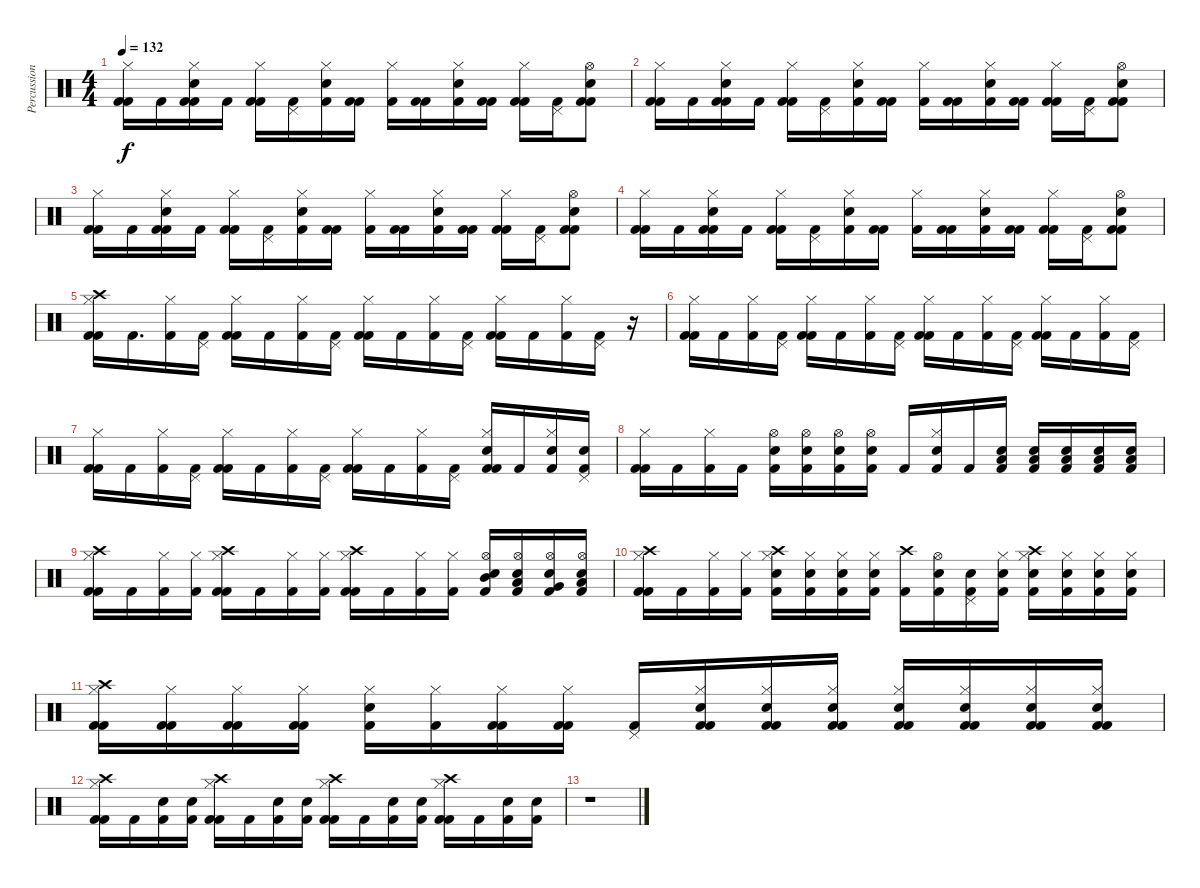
\track ("Percussion" "Percussion") {instrument percussion}
\staff {score}
\articulation defaults
\ts (4 4)
\tempo 132
\clef neutral
\ks c
("Kick (hit) 2" "Hi-Hat (closed)" "Kick (hit) 2").16{dy f} "Kick (hit) 2".16 ("Kick (hit) 2" "Snare (hit) 2" "Hi-Hat (closed)" "Kick (hit) 2").16 "Kick (hit) 2".16 ("Kick (hit) 2" "Hi-Hat (closed)" "Kick (hit) 2").16 ("Pedal Hi-Hat (hit)" "Kick (hit) 2").16 ("Snare (hit) 2" "Hi-Hat (closed)" "Kick (hit) 2").16 ("Kick (hit) 2" "Kick (hit) 2").16 ("Hi-Hat (closed)" "Kick (hit) 2").16 ("Kick (hit) 2" "Kick (hit) 2").16 ("Snare (hit) 2" "Hi-Hat (closed)" "Kick (hit) 2").16 ("Kick (hit) 2" "Kick (hit) 2").16 ("Kick (hit) 2" "Hi-Hat (closed)" "Kick (hit) 2").16 ("Pedal Hi-Hat (hit)" "Kick (hit) 2").16 ("Kick (hit) 2" "Snare (hit) 2" "Hi-Hat (open)" "Kick (hit) 2").8 |
("Kick (hit) 2" "Hi-Hat (closed)" "Kick (hit) 2").16 "Kick (hit) 2".16 ("Kick (hit) 2" "Snare (hit) 2" "Hi-Hat (closed)" "Kick (hit) 2").16 "Kick (hit) 2".16 ("Kick (hit) 2" "Hi-Hat (closed)" "Kick (hit) 2").16 ("Pedal Hi-Hat (hit)" "Kick (hit) 2").16 ("Snare (hit) 2" "Hi-Hat (closed)" "Kick (hit) 2").16 ("Kick (hit) 2" "Kick (hit) 2").16 ("Hi-Hat (closed)" "Kick (hit) 2").16 ("Kick (hit) 2" "Kick (hit) 2").16 ("Snare (hit) 2" "Hi-Hat (closed)" "Kick (hit) 2").16 ("Kick (hit) 2" "Kick (hit) 2").16 ("Kick (hit) 2" "Hi-Hat (closed)" "Kick (hit) 2").16 ("Pedal Hi-Hat (hit)" "Kick (hit) 2").16 ("Kick (hit) 2" "Snare (hit) 2" "Hi-Hat (open)" "Kick (hit) 2").8 |
("Kick (hit) 2" "Hi-Hat (closed)" "Kick (hit) 2").16 "Kick (hit) 2".16 ("Kick (hit) 2" "Snare (hit) 2" "Hi-Hat (closed)" "Kick (hit) 2").16 "Kick (hit) 2".16 ("Kick (hit) 2" "Hi-Hat (closed)" "Kick (hit) 2").16 ("Pedal Hi-Hat (hit)" "Kick (hit) 2").16 ("Snare (hit) 2" "Hi-Hat (closed)" "Kick (hit) 2").16 ("Kick (hit) 2" "Kick (hit) 2").16 ("Hi-Hat (closed)" "Kick (hit) 2").16 ("Kick (hit) 2" "Kick (hit) 2").16 ("Snare (hit) 2" "Hi-Hat (closed)" "Kick (hit) 2").16 ("Kick (hit) 2" "Kick (hit) 2").16 ("Kick (hit) 2" "Hi-Hat (closed)" "Kick (hit) 2").16 ("Pedal Hi-Hat (hit)" "Kick (hit) 2").16 ("Kick (hit) 2" "Snare (hit) 2" "Hi-Hat (open)" "Kick (hit) 2").8 |
("Kick (hit) 2" "Hi-Hat (closed)" "Kick (hit) 2").16 "Kick (hit) 2".16 ("Kick (hit) 2" "Snare (hit) 2" "Hi-Hat (closed)" "Kick (hit) 2").16 "Kick (hit) 2".16 ("Kick (hit) 2" "Hi-Hat (closed)" "Kick (hit) 2").16 ("Pedal Hi-Hat (hit)" "Kick (hit) 2").16 ("Snare (hit) 2" "Hi-Hat (closed)" "Kick (hit) 2").16 ("Kick (hit) 2" "Kick (hit) 2").16 ("Hi-Hat (closed)" "Kick (hit) 2").16 ("Kick (hit) 2" "Kick (hit) 2").16 ("Snare (hit) 2" "Hi-Hat (closed)" "Kick (hit) 2").16 ("Kick (hit) 2" "Kick (hit) 2").16 ("Kick (hit) 2" "Hi-Hat (closed)" "Kick (hit) 2").16 ("Pedal Hi-Hat (hit)" "Kick (hit) 2").16 ("Kick (hit) 2" "Snare (hit) 2" "Hi-Hat (open)" "Kick (hit) 2").8 |
("Kick (hit) 2" "Hi-Hat (closed)" "Crash high (hit)" "Kick (hit) 2").16 "Kick (hit) 2".16{d} ("Hi-Hat (closed)" "Kick (hit) 2").16 ("Pedal Hi-Hat (hit)" "Kick (hit) 2").16 ("Kick (hit) 2" "Hi-Hat (closed)" "Kick (hit) 2").16 "Kick (hit) 2".16 ("Hi-Hat (closed)" "Kick (hit) 2").16 ("Pedal Hi-Hat (hit)" "Kick (hit) 2").16 ("Kick (hit) 2" "Hi-Hat (closed)" "Kick (hit) 2").16 "Kick (hit) 2".16 ("Hi-Hat (closed)" "Kick (hit) 2").16 ("Pedal Hi-Hat (hit)" "Kick (hit) 2").16 ("Kick (hit) 2" "Hi-Hat (closed)" "Kick (hit) 2").16 "Kick (hit) 2".16 ("Hi-Hat (closed)" "Kick (hit) 2").16 ("Pedal Hi-Hat (hit)" "Kick (hit) 2").16 r.16 |
("Kick (hit) 2" "Hi-Hat (closed)" "Kick (hit) 2").16 "Kick (hit) 2".16 ("Hi-Hat (closed)" "Kick (hit) 2").16 ("Pedal Hi-Hat (hit)" "Kick (hit) 2").16 ("Kick (hit) 2" "Hi-Hat (closed)" "Kick (hit) 2").16 "Kick (hit) 2".16 ("Hi-Hat (closed)" "Kick (hit) 2").16 ("Pedal Hi-Hat (hit)" "Kick (hit) 2").16 ("Kick (hit) 2" "Hi-Hat (closed)" "Kick (hit) 2").16 "Kick (hit) 2".16 ("Hi-Hat (closed)" "Kick (hit) 2").16 ("Pedal Hi-Hat (hit)" "Kick (hit) 2").16 ("Kick (hit) 2" "Hi-Hat (closed)" "Kick (hit) 2").16 "Kick (hit) 2".16 ("Hi-Hat (closed)" "Kick (hit) 2").16 ("Pedal Hi-Hat (hit)" "Kick (hit) 2").16 |
("Kick (hit) 2" "Hi-Hat (closed)" "Kick (hit) 2").16 "Kick (hit) 2".16 ("Hi-Hat (closed)" "Kick (hit) 2").16 ("Pedal Hi-Hat (hit)" "Kick (hit) 2").16 ("Kick (hit) 2" "Hi-Hat (closed)" "Kick (hit) 2").16 "Kick (hit) 2".16 ("Hi-Hat (closed)" "Kick (hit) 2").16 ("Pedal Hi-Hat (hit)" "Kick (hit) 2").16 ("Kick (hit) 2" "Hi-Hat (closed)" "Kick (hit) 2").16 "Kick (hit) 2".16 ("Hi-Hat (closed)" "Kick (hit) 2").16 ("Pedal Hi-Hat (hit)" "Kick (hit) 2").16 ("Kick (hit) 2" "Snare (hit) 2" "Hi-Hat (closed)" "Kick (hit) 2").16 "Kick (hit) 2".16 ("Snare (hit) 2" "Hi-Hat (closed)" "Kick (hit) 2").16 ("Snare (hit) 2" "Pedal Hi-Hat (hit)" "Kick (hit) 2").16 |
("Kick (hit) 2" "Hi-Hat (closed)" "Kick (hit) 2").16 "Kick (hit) 2".16 ("Hi-Hat (closed)" "Kick (hit) 2").16 "Kick (hit) 2".16 ("Snare (hit) 2" "Hi-Hat (open)" "Kick (hit) 2").16 ("Snare (hit) 2" "Hi-Hat (open)" "Kick (hit) 2").16 ("Snare (hit) 2" "Hi-Hat (open)" "Kick (hit) 2").16 ("Snare (hit) 2" "Hi-Hat (open)" "Kick (hit) 2").16 "Kick (hit) 2".16 ("Snare (hit) 2" "Hi-Hat (closed)" "Kick (hit) 2").16 "Kick (hit) 2".16 ("Snare (hit) 2" "Low Floor Tom (hit)" "Kick (hit) 2").16 ("Snare (hit) 2" "Low Floor Tom (hit)" "Kick (hit) 2").16 ("Snare (hit) 2" "Low Floor Tom (hit)" "Kick (hit) 2").16 ("Snare (hit) 2" "Low Floor Tom (hit)" "Kick (hit) 2").16 ("Snare (hit) 2" "Low Floor Tom (hit)" "Kick (hit) 2").16 |
("Kick (hit) 2" "Hi-Hat (closed)" "Crash high (hit)" "Kick (hit) 2").16 "Kick (hit) 2".16 ("Hi-Hat (closed)" "Kick (hit) 2").16 ("Hi-Hat (closed)" "Kick (hit) 2").16 ("Kick (hit) 2" "Hi-Hat (closed)" "Crash high (hit)" "Kick (hit) 2").16 "Kick (hit) 2".16 ("Hi-Hat (closed)" "Kick (hit) 2").16 ("Hi-Hat (closed)" "Kick (hit) 2").16 ("Kick (hit) 2" "Hi-Hat (closed)" "Crash high (hit)" "Kick (hit) 2").16 "Kick (hit) 2".16 ("Hi-Hat (closed)" "Kick (hit) 2").16 ("Hi-Hat (closed)" "Kick (hit) 2").16 ("Snare (hit) 2" "Hi-Hat (open)" "Mid Tom (hit)" "Kick (hit) 2").16 ("Snare (hit) 2" "Low Tom (hit)" "Hi-Hat (open)" "Kick (hit) 2").16 ("Snare (hit) 2" "Very Low Tom (hit)" "Hi-Hat (open)" "Kick (hit) 2").16 ("Snare (hit) 2" "Low Floor Tom (hit)" "Hi-Hat (open)" "Kick (hit) 2").16 |
("Kick (hit) 2" "Hi-Hat (closed)" "Crash high (hit)" "Kick (hit) 2").16 "Kick (hit) 2".16 ("Hi-Hat (closed)" "Kick (hit) 2").16 ("Hi-Hat (closed)" "Kick (hit) 2").16 ("Snare (hit) 2" "Hi-Hat (closed)" "Crash high (hit)" "Kick (hit) 2").16 ("Snare (hit) 2" "Hi-Hat (closed)" "Kick (hit) 2").16 ("Snare (hit) 2" "Hi-Hat (closed)" "Kick (hit) 2").16 ("Snare (hit) 2" "Hi-Hat (closed)" "Kick (hit) 2").16 ("Crash high (hit)" "Kick (hit) 2").16 ("Snare (hit) 2" "Hi-Hat (open)" "Kick (hit) 2").16 ("Snare (hit) 2" "Pedal Hi-Hat (hit)" "Kick (hit) 2").16 ("Snare (hit) 2" "Hi-Hat (closed)" "Kick (hit) 2").16 ("Snare (hit) 2" "Hi-Hat (closed)" "Crash high (hit)" "Kick (hit) 2").16 ("Snare (hit) 2" "Hi-Hat (closed)" "Kick (hit) 2").16 ("Snare (hit) 2" "Hi-Hat (closed)" "Kick (hit) 2").16 ("Snare (hit) 2" "Hi-Hat (closed)" "Kick (hit) 2").16 |
("Kick (hit) 2" "Hi-Hat (closed)" "Crash high (hit)" "Kick (hit) 2").16 ("Kick (hit) 2" "Hi-Hat (closed)" "Kick (hit) 2").16 ("Kick (hit) 2" "Hi-Hat (closed)" "Kick (hit) 2").16 ("Kick (hit) 2" "Hi-Hat (closed)" "Kick (hit) 2").16 ("Snare (hit) 2" "Hi-Hat (closed)" "Kick (hit) 2").16 ("Hi-Hat (closed)" "Kick (hit) 2").16 ("Kick (hit) 2" "Hi-Hat (closed)" "Kick (hit) 2").16 ("Kick (hit) 2" "Hi-Hat (closed)" "Kick (hit) 2").16 ("Pedal Hi-Hat (hit)" "Kick (hit) 2").16 ("Kick (hit) 2" "Snare (hit) 2" "Hi-Hat (closed)" "Kick (hit) 2").16 ("Kick (hit) 2" "Snare (hit) 2" "Hi-Hat (closed)" "Kick (hit) 2").16 ("Kick (hit) 2" "Snare (hit) 2" "Hi-Hat (closed)" "Kick (hit) 2").16 ("Kick (hit) 2" "Snare (hit) 2" "Hi-Hat (closed)" "Kick (hit) 2").16 ("Kick (hit) 2" "Snare (hit) 2" "Hi-Hat (closed)" "Kick (hit) 2").16 ("Kick (hit) 2" "Snare (hit) 2" "Hi-Hat (closed)" "Kick (hit) 2").16 ("Kick (hit) 2" "Snare (hit) 2" "Hi-Hat (closed)" "Kick (hit) 2").16 |
("Kick (hit) 2" "Hi-Hat (closed)" "Crash high (hit)" "Kick (hit) 2").16 "Kick (hit) 2".16 ("Snare (hit) 2" "Kick (hit) 2").16 ("Snare (hit) 2" "Kick (hit) 2").16 ("Kick (hit) 2" "Hi-Hat (closed)" "Crash high (hit)" "Kick (hit) 2").16 "Kick (hit) 2".16 ("Snare (hit) 2" "Kick (hit) 2").16 ("Snare (hit) 2" "Kick (hit) 2").16 ("Kick (hit) 2" "Hi-Hat (closed)" "Crash high (hit)" "Kick (hit) 2").16 "Kick (hit) 2".16 ("Snare (hit) 2" "Kick (hit) 2").16 ("Snare (hit) 2" "Kick (hit) 2").16 ("Kick (hit) 2" "Hi-Hat (closed)" "Crash high (hit)" "Kick (hit) 2").16 "Kick (hit) 2".16 ("Snare (hit) 2" "Kick (hit) 2").16 ("Snare (hit) 2" "Kick (hit) 2").16 |
r.1
